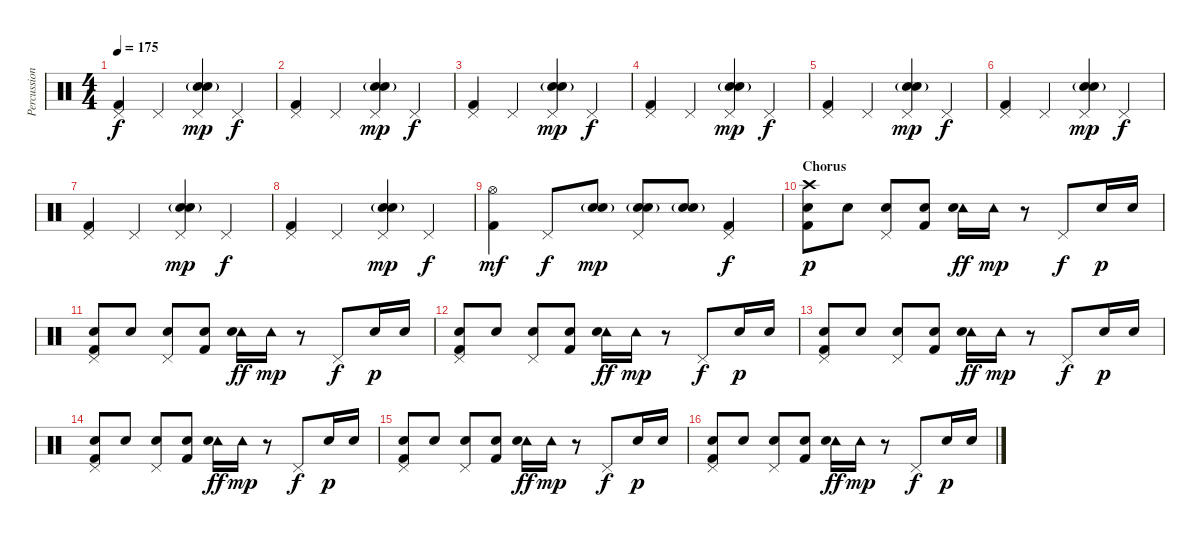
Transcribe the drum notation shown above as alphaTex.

\track ("Percussion" "Percussion") {instrument percussion}
\staff {score}
\articulation defaults
\ts (4 4)
\tempo 175
\clef neutral
\ks c
("Pedal Hi-Hat (hit)" "Kick (hit) 2").4{dy f} "Pedal Hi-Hat (hit)".4 ("Pedal Hi-Hat (hit)" "Electric Snare (hit)" "Snare (hit) 2"{g}).4{dy mp} "Pedal Hi-Hat (hit)".4{dy f} |
("Pedal Hi-Hat (hit)" "Kick (hit) 2").4 "Pedal Hi-Hat (hit)".4 ("Pedal Hi-Hat (hit)" "Electric Snare (hit)" "Snare (hit) 2"{g}).4{dy mp} "Pedal Hi-Hat (hit)".4{dy f} |
("Pedal Hi-Hat (hit)" "Kick (hit) 2").4 "Pedal Hi-Hat (hit)".4 ("Pedal Hi-Hat (hit)" "Electric Snare (hit)" "Snare (hit) 2"{g}).4{dy mp} "Pedal Hi-Hat (hit)".4{dy f} |
("Pedal Hi-Hat (hit)" "Kick (hit) 2").4 "Pedal Hi-Hat (hit)".4 ("Pedal Hi-Hat (hit)" "Electric Snare (hit)" "Snare (hit) 2"{g}).4{dy mp} "Pedal Hi-Hat (hit)".4{dy f} |
("Pedal Hi-Hat (hit)" "Kick (hit) 2").4 "Pedal Hi-Hat (hit)".4 ("Pedal Hi-Hat (hit)" "Electric Snare (hit)" "Snare (hit) 2"{g}).4{dy mp} "Pedal Hi-Hat (hit)".4{dy f} |
("Pedal Hi-Hat (hit)" "Kick (hit) 2").4 "Pedal Hi-Hat (hit)".4 ("Pedal Hi-Hat (hit)" "Electric Snare (hit)" "Snare (hit) 2"{g}).4{dy mp} "Pedal Hi-Hat (hit)".4{dy f} |
("Pedal Hi-Hat (hit)" "Kick (hit) 2").4 "Pedal Hi-Hat (hit)".4 ("Pedal Hi-Hat (hit)" "Electric Snare (hit)" "Snare (hit) 2"{g}).4{dy mp} "Pedal Hi-Hat (hit)".4{dy f} |
("Pedal Hi-Hat (hit)" "Kick (hit) 2").4 "Pedal Hi-Hat (hit)".4 ("Pedal Hi-Hat (hit)" "Electric Snare (hit)" "Snare (hit) 2"{g}).4{dy mp} "Pedal Hi-Hat (hit)".4{dy f} |
("Hi-Hat (open)" "Kick (hit) 2").4{dy mf} "Pedal Hi-Hat (hit)".8{dy f} ("Electric Snare (hit)" "Snare (hit) 2"{g}).8{dy mp} ("Pedal Hi-Hat (hit)" "Electric Snare (hit)" "Snare (hit) 2"{g}).8 ("Electric Snare (hit)" "Snare (hit) 2"{g}).8 ("Pedal Hi-Hat (hit)" "Kick (hit) 2").4{dy f} |
\section ("" "Chorus")
("Crash high (hit)" "Snare (hit) 2" "Kick (hit) 2").8{dy p} "Snare (hit) 2".8 ("Pedal Hi-Hat (hit)" "Snare (hit) 2").8 ("Snare (hit) 2" "Kick (hit) 2").8 ("Tambourine (hit)" "Electric Snare (hit)").16{dy ff} "Tambourine (hit)".16{dy mp} r.8 "Pedal Hi-Hat (hit)".8{dy f} "Snare (hit) 2".16{dy p} "Snare (hit) 2".16 |
("Pedal Hi-Hat (hit)" "Snare (hit) 2" "Kick (hit) 2").8 "Snare (hit) 2".8 ("Pedal Hi-Hat (hit)" "Snare (hit) 2").8 ("Snare (hit) 2" "Kick (hit) 2").8 ("Tambourine (hit)" "Electric Snare (hit)").16{dy ff} "Tambourine (hit)".16{dy mp} r.8 "Pedal Hi-Hat (hit)".8{dy f} "Snare (hit) 2".16{dy p} "Snare (hit) 2".16 |
("Pedal Hi-Hat (hit)" "Snare (hit) 2" "Kick (hit) 2").8 "Snare (hit) 2".8 ("Pedal Hi-Hat (hit)" "Snare (hit) 2").8 ("Snare (hit) 2" "Kick (hit) 2").8 ("Tambourine (hit)" "Electric Snare (hit)").16{dy ff} "Tambourine (hit)".16{dy mp} r.8 "Pedal Hi-Hat (hit)".8{dy f} "Snare (hit) 2".16{dy p} "Snare (hit) 2".16 |
("Pedal Hi-Hat (hit)" "Snare (hit) 2" "Kick (hit) 2").8 "Snare (hit) 2".8 ("Pedal Hi-Hat (hit)" "Snare (hit) 2").8 ("Snare (hit) 2" "Kick (hit) 2").8 ("Tambourine (hit)" "Electric Snare (hit)").16{dy ff} "Tambourine (hit)".16{dy mp} r.8 "Pedal Hi-Hat (hit)".8{dy f} "Snare (hit) 2".16{dy p} "Snare (hit) 2".16 |
("Pedal Hi-Hat (hit)" "Snare (hit) 2" "Kick (hit) 2").8 "Snare (hit) 2".8 ("Pedal Hi-Hat (hit)" "Snare (hit) 2").8 ("Snare (hit) 2" "Kick (hit) 2").8 ("Tambourine (hit)" "Electric Snare (hit)").16{dy ff} "Tambourine (hit)".16{dy mp} r.8 "Pedal Hi-Hat (hit)".8{dy f} "Snare (hit) 2".16{dy p} "Snare (hit) 2".16 |
("Pedal Hi-Hat (hit)" "Snare (hit) 2" "Kick (hit) 2").8 "Snare (hit) 2".8 ("Pedal Hi-Hat (hit)" "Snare (hit) 2").8 ("Snare (hit) 2" "Kick (hit) 2").8 ("Tambourine (hit)" "Electric Snare (hit)").16{dy ff} "Tambourine (hit)".16{dy mp} r.8 "Pedal Hi-Hat (hit)".8{dy f} "Snare (hit) 2".16{dy p} "Snare (hit) 2".16 |
("Pedal Hi-Hat (hit)" "Snare (hit) 2" "Kick (hit) 2").8 "Snare (hit) 2".8 ("Pedal Hi-Hat (hit)" "Snare (hit) 2").8 ("Snare (hit) 2" "Kick (hit) 2").8 ("Tambourine (hit)" "Electric Snare (hit)").16{dy ff} "Tambourine (hit)".16{dy mp} r.8 "Pedal Hi-Hat (hit)".8{dy f} "Snare (hit) 2".16{dy p} "Snare (hit) 2".16
